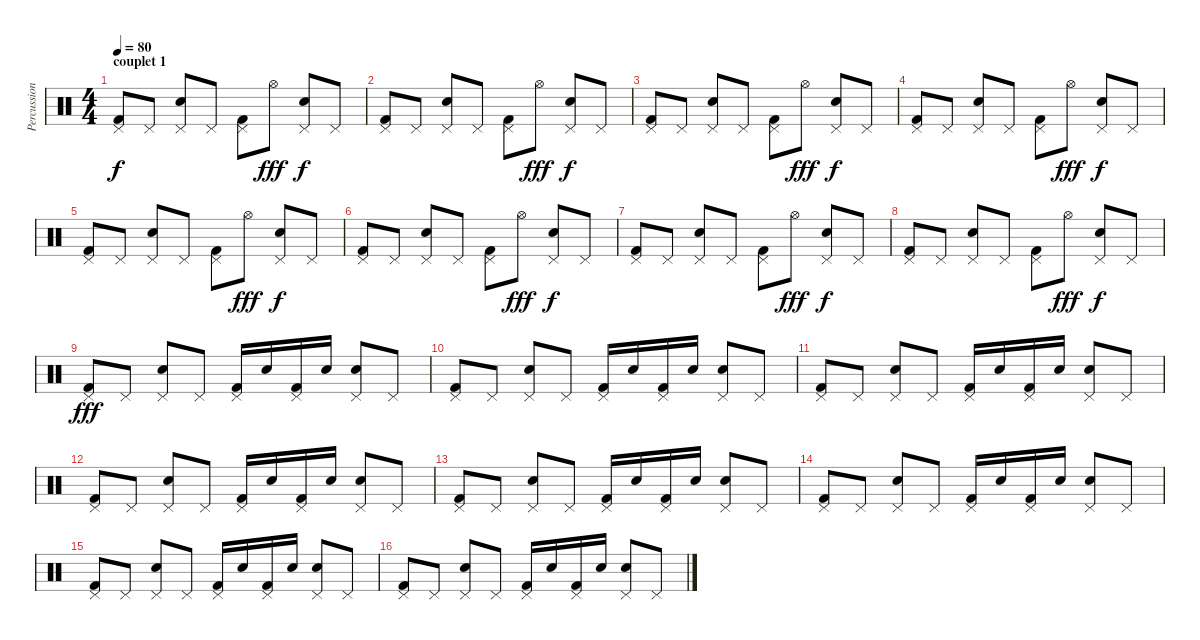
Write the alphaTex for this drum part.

\track ("Percussions" "Percussion") {instrument percussion}
\staff {score}
\articulation defaults
\ts (4 4)
\section ("" "couplet 1")
\tempo 80
\clef neutral
\ks c
("Pedal Hi-Hat (hit)" "Kick (hit) 2").8{dy f} "Pedal Hi-Hat (hit)".8 ("Pedal Hi-Hat (hit)" "Snare (hit) 2").8 "Pedal Hi-Hat (hit)".8 ("Pedal Hi-Hat (hit)" "Kick (hit) 2").8 "Hi-Hat (open)".8{dy fff} ("Pedal Hi-Hat (hit)" "Snare (hit) 2").8{dy f} "Pedal Hi-Hat (hit)".8 |
("Pedal Hi-Hat (hit)" "Kick (hit) 2").8 "Pedal Hi-Hat (hit)".8 ("Pedal Hi-Hat (hit)" "Snare (hit) 2").8 "Pedal Hi-Hat (hit)".8 ("Pedal Hi-Hat (hit)" "Kick (hit) 2").8 "Hi-Hat (open)".8{dy fff} ("Pedal Hi-Hat (hit)" "Snare (hit) 2").8{dy f} "Pedal Hi-Hat (hit)".8 |
("Pedal Hi-Hat (hit)" "Kick (hit) 2").8 "Pedal Hi-Hat (hit)".8 ("Pedal Hi-Hat (hit)" "Snare (hit) 2").8 "Pedal Hi-Hat (hit)".8 ("Pedal Hi-Hat (hit)" "Kick (hit) 2").8 "Hi-Hat (open)".8{dy fff} ("Pedal Hi-Hat (hit)" "Snare (hit) 2").8{dy f} "Pedal Hi-Hat (hit)".8 |
("Pedal Hi-Hat (hit)" "Kick (hit) 2").8 "Pedal Hi-Hat (hit)".8 ("Pedal Hi-Hat (hit)" "Snare (hit) 2").8 "Pedal Hi-Hat (hit)".8 ("Pedal Hi-Hat (hit)" "Kick (hit) 2").8 "Hi-Hat (open)".8{dy fff} ("Pedal Hi-Hat (hit)" "Snare (hit) 2").8{dy f} "Pedal Hi-Hat (hit)".8 |
("Pedal Hi-Hat (hit)" "Kick (hit) 2").8 "Pedal Hi-Hat (hit)".8 ("Pedal Hi-Hat (hit)" "Snare (hit) 2").8 "Pedal Hi-Hat (hit)".8 ("Pedal Hi-Hat (hit)" "Kick (hit) 2").8 "Hi-Hat (open)".8{dy fff} ("Pedal Hi-Hat (hit)" "Snare (hit) 2").8{dy f} "Pedal Hi-Hat (hit)".8 |
("Pedal Hi-Hat (hit)" "Kick (hit) 2").8 "Pedal Hi-Hat (hit)".8 ("Pedal Hi-Hat (hit)" "Snare (hit) 2").8 "Pedal Hi-Hat (hit)".8 ("Pedal Hi-Hat (hit)" "Kick (hit) 2").8 "Hi-Hat (open)".8{dy fff} ("Pedal Hi-Hat (hit)" "Snare (hit) 2").8{dy f} "Pedal Hi-Hat (hit)".8 |
("Pedal Hi-Hat (hit)" "Kick (hit) 2").8 "Pedal Hi-Hat (hit)".8 ("Pedal Hi-Hat (hit)" "Snare (hit) 2").8 "Pedal Hi-Hat (hit)".8 ("Pedal Hi-Hat (hit)" "Kick (hit) 2").8 "Hi-Hat (open)".8{dy fff} ("Pedal Hi-Hat (hit)" "Snare (hit) 2").8{dy f} "Pedal Hi-Hat (hit)".8 |
("Pedal Hi-Hat (hit)" "Kick (hit) 2").8 "Pedal Hi-Hat (hit)".8 ("Pedal Hi-Hat (hit)" "Snare (hit) 2").8 "Pedal Hi-Hat (hit)".8 ("Pedal Hi-Hat (hit)" "Kick (hit) 2").8 "Hi-Hat (open)".8{dy fff} ("Pedal Hi-Hat (hit)" "Snare (hit) 2").8{dy f} "Pedal Hi-Hat (hit)".8 |
("Pedal Hi-Hat (hit)" "Kick (hit) 2").8{dy fff} "Pedal Hi-Hat (hit)".8 ("Pedal Hi-Hat (hit)" "Electric Snare (hit)").8 "Pedal Hi-Hat (hit)".8 ("Pedal Hi-Hat (hit)" "Kick (hit) 2").16 "Electric Snare (hit)".16 ("Pedal Hi-Hat (hit)" "Kick (hit) 2").16 "Electric Snare (hit)".16 ("Pedal Hi-Hat (hit)" "Electric Snare (hit)").8 "Pedal Hi-Hat (hit)".8 |
("Pedal Hi-Hat (hit)" "Kick (hit) 2").8 "Pedal Hi-Hat (hit)".8 ("Pedal Hi-Hat (hit)" "Electric Snare (hit)").8 "Pedal Hi-Hat (hit)".8 ("Pedal Hi-Hat (hit)" "Kick (hit) 2").16 "Electric Snare (hit)".16 ("Pedal Hi-Hat (hit)" "Kick (hit) 2").16 "Electric Snare (hit)".16 ("Pedal Hi-Hat (hit)" "Electric Snare (hit)").8 "Pedal Hi-Hat (hit)".8 |
("Pedal Hi-Hat (hit)" "Kick (hit) 2").8 "Pedal Hi-Hat (hit)".8 ("Pedal Hi-Hat (hit)" "Electric Snare (hit)").8 "Pedal Hi-Hat (hit)".8 ("Pedal Hi-Hat (hit)" "Kick (hit) 2").16 "Electric Snare (hit)".16 ("Pedal Hi-Hat (hit)" "Kick (hit) 2").16 "Electric Snare (hit)".16 ("Pedal Hi-Hat (hit)" "Electric Snare (hit)").8 "Pedal Hi-Hat (hit)".8 |
("Pedal Hi-Hat (hit)" "Kick (hit) 2").8 "Pedal Hi-Hat (hit)".8 ("Pedal Hi-Hat (hit)" "Electric Snare (hit)").8 "Pedal Hi-Hat (hit)".8 ("Pedal Hi-Hat (hit)" "Kick (hit) 2").16 "Electric Snare (hit)".16 ("Pedal Hi-Hat (hit)" "Kick (hit) 2").16 "Electric Snare (hit)".16 ("Pedal Hi-Hat (hit)" "Electric Snare (hit)").8 "Pedal Hi-Hat (hit)".8 |
("Pedal Hi-Hat (hit)" "Kick (hit) 2").8 "Pedal Hi-Hat (hit)".8 ("Pedal Hi-Hat (hit)" "Electric Snare (hit)").8 "Pedal Hi-Hat (hit)".8 ("Pedal Hi-Hat (hit)" "Kick (hit) 2").16 "Electric Snare (hit)".16 ("Pedal Hi-Hat (hit)" "Kick (hit) 2").16 "Electric Snare (hit)".16 ("Pedal Hi-Hat (hit)" "Electric Snare (hit)").8 "Pedal Hi-Hat (hit)".8 |
("Pedal Hi-Hat (hit)" "Kick (hit) 2").8 "Pedal Hi-Hat (hit)".8 ("Pedal Hi-Hat (hit)" "Electric Snare (hit)").8 "Pedal Hi-Hat (hit)".8 ("Pedal Hi-Hat (hit)" "Kick (hit) 2").16 "Electric Snare (hit)".16 ("Pedal Hi-Hat (hit)" "Kick (hit) 2").16 "Electric Snare (hit)".16 ("Pedal Hi-Hat (hit)" "Electric Snare (hit)").8 "Pedal Hi-Hat (hit)".8 |
("Pedal Hi-Hat (hit)" "Kick (hit) 2").8 "Pedal Hi-Hat (hit)".8 ("Pedal Hi-Hat (hit)" "Electric Snare (hit)").8 "Pedal Hi-Hat (hit)".8 ("Pedal Hi-Hat (hit)" "Kick (hit) 2").16 "Electric Snare (hit)".16 ("Pedal Hi-Hat (hit)" "Kick (hit) 2").16 "Electric Snare (hit)".16 ("Pedal Hi-Hat (hit)" "Electric Snare (hit)").8 "Pedal Hi-Hat (hit)".8 |
("Pedal Hi-Hat (hit)" "Kick (hit) 2").8 "Pedal Hi-Hat (hit)".8 ("Pedal Hi-Hat (hit)" "Electric Snare (hit)").8 "Pedal Hi-Hat (hit)".8 ("Pedal Hi-Hat (hit)" "Kick (hit) 2").16 "Electric Snare (hit)".16 ("Pedal Hi-Hat (hit)" "Kick (hit) 2").16 "Electric Snare (hit)".16 ("Pedal Hi-Hat (hit)" "Electric Snare (hit)").8 "Pedal Hi-Hat (hit)".8
